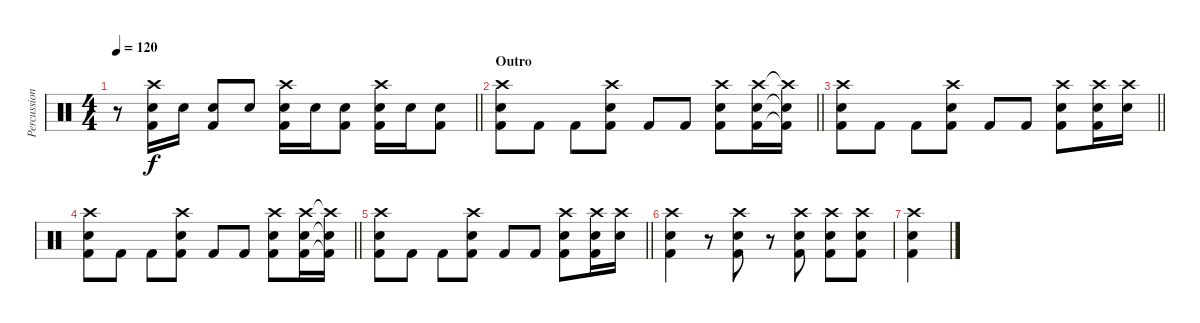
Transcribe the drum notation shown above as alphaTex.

\track ("Percussion" "Percussion") {instrument percussion}
\staff {score}
\articulation defaults
\ts (4 4)
\tempo 120
\clef neutral
\barLineRight lightlight
\ks c
r.8{dy f} ("Crash high (hit)" "Electric Snare (hit)" "Kick (hit) 2").16 "Electric Snare (hit)".16 ("Electric Snare (hit)" "Kick (hit) 2").8 "Electric Snare (hit)".8 ("Crash high (hit)" "Electric Snare (hit)" "Kick (hit) 2").16 "Electric Snare (hit)".16 ("Electric Snare (hit)" "Kick (hit) 2").8 ("Crash high (hit)" "Electric Snare (hit)" "Kick (hit) 2").16 "Electric Snare (hit)".16 ("Electric Snare (hit)" "Kick (hit) 2").8 |
\section ("" "Outro")
\barLineRight lightlight
("Crash high (hit)" "Electric Snare (hit)" "Kick (hit) 2").8 "Kick (hit) 2".8 "Kick (hit) 2".8 ("Crash high (hit)" "Electric Snare (hit)" "Kick (hit) 2").8 "Kick (hit) 2".8 "Kick (hit) 2".8 ("Crash high (hit)" "Electric Snare (hit)" "Kick (hit) 2").8 ("Crash high (hit)" "Electric Snare (hit)" "Kick (hit) 2").16 ("Crash high (hit)"{t} "Electric Snare (hit)"{t} "Kick (hit) 2"{t}).16 |
\barLineRight lightlight
("Crash high (hit)" "Electric Snare (hit)" "Kick (hit) 2").8 "Kick (hit) 2".8 "Kick (hit) 2".8 ("Crash high (hit)" "Electric Snare (hit)" "Kick (hit) 2").8 "Kick (hit) 2".8 "Kick (hit) 2".8 ("Crash high (hit)" "Electric Snare (hit)" "Kick (hit) 2").8 ("Crash high (hit)" "Electric Snare (hit)" "Kick (hit) 2").16 ("Crash high (hit)" "Electric Snare (hit)").16 |
\barLineRight lightlight
("Crash high (hit)" "Electric Snare (hit)" "Kick (hit) 2").8 "Kick (hit) 2".8 "Kick (hit) 2".8 ("Crash high (hit)" "Electric Snare (hit)" "Kick (hit) 2").8 "Kick (hit) 2".8 "Kick (hit) 2".8 ("Crash high (hit)" "Electric Snare (hit)" "Kick (hit) 2").8 ("Crash high (hit)" "Electric Snare (hit)" "Kick (hit) 2").16 ("Crash high (hit)"{t} "Electric Snare (hit)"{t} "Kick (hit) 2"{t}).16 |
\barLineRight lightlight
("Crash high (hit)" "Electric Snare (hit)" "Kick (hit) 2").8 "Kick (hit) 2".8 "Kick (hit) 2".8 ("Crash high (hit)" "Electric Snare (hit)" "Kick (hit) 2").8 "Kick (hit) 2".8 "Kick (hit) 2".8 ("Crash high (hit)" "Electric Snare (hit)" "Kick (hit) 2").8 ("Crash high (hit)" "Electric Snare (hit)" "Kick (hit) 2").16 ("Crash high (hit)" "Electric Snare (hit)").16 |
("Crash high (hit)" "Electric Snare (hit)" "Kick (hit) 2").4 r.8 ("Crash high (hit)" "Electric Snare (hit)" "Kick (hit) 2").8 r.8 ("Crash high (hit)" "Electric Snare (hit)" "Kick (hit) 2").8 ("Crash high (hit)" "Electric Snare (hit)" "Kick (hit) 2").8 ("Crash high (hit)" "Electric Snare (hit)" "Kick (hit) 2").8 |
("Crash high (hit)" "Electric Snare (hit)" "Kick (hit) 2").4
